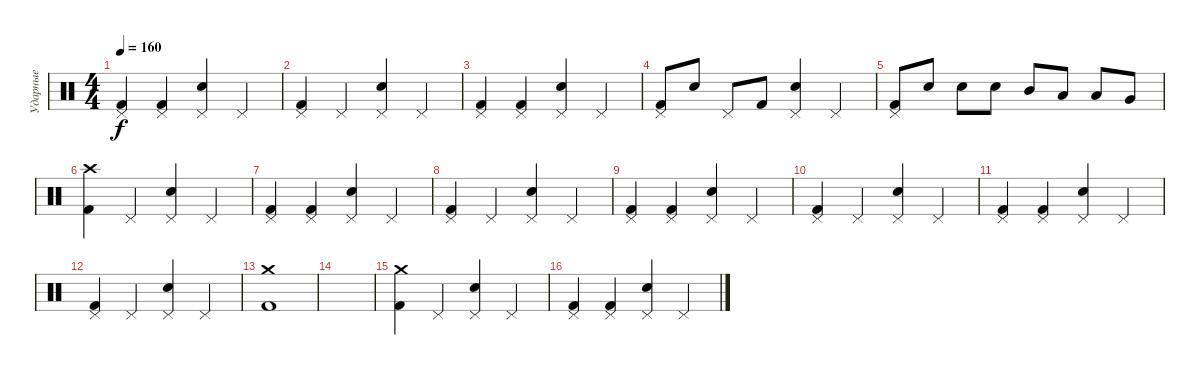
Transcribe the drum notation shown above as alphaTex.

\track ("Ударные" "Ударные") {instrument percussion}
\staff {score}
\articulation defaults
\ts (4 4)
\tempo 160
\clef neutral
\ks c
("Pedal Hi-Hat (hit)" "Kick (hit) 2").4{dy f} ("Pedal Hi-Hat (hit)" "Kick (hit) 2").4 ("Snare (hit) 2" "Pedal Hi-Hat (hit)").4 "Pedal Hi-Hat (hit)".4 |
("Pedal Hi-Hat (hit)" "Kick (hit) 2").4 "Pedal Hi-Hat (hit)".4 ("Snare (hit) 2" "Pedal Hi-Hat (hit)").4 "Pedal Hi-Hat (hit)".4 |
("Pedal Hi-Hat (hit)" "Kick (hit) 2").4 ("Pedal Hi-Hat (hit)" "Kick (hit) 2").4 ("Snare (hit) 2" "Pedal Hi-Hat (hit)").4 "Pedal Hi-Hat (hit)".4 |
("Pedal Hi-Hat (hit)" "Kick (hit) 2").8 "Snare (hit) 2".8 "Pedal Hi-Hat (hit)".8 "Kick (hit) 2".8 ("Snare (hit) 2" "Pedal Hi-Hat (hit)").4 "Pedal Hi-Hat (hit)".4 |
("Pedal Hi-Hat (hit)" "Kick (hit) 2").8 "Snare (hit) 2".8 "Snare (hit) 2".8 "Snare (hit) 2".8 "Mid Tom (hit)".8 "Low Tom (hit)".8 "Low Tom (hit)".8 "Very Low Tom (hit)".8 |
("Crash high (hit)" "Kick (hit) 2").4 "Pedal Hi-Hat (hit)".4 ("Snare (hit) 2" "Pedal Hi-Hat (hit)").4 "Pedal Hi-Hat (hit)".4 |
("Pedal Hi-Hat (hit)" "Kick (hit) 2").4 ("Pedal Hi-Hat (hit)" "Kick (hit) 2").4 ("Snare (hit) 2" "Pedal Hi-Hat (hit)").4 "Pedal Hi-Hat (hit)".4 |
("Pedal Hi-Hat (hit)" "Kick (hit) 2").4 "Pedal Hi-Hat (hit)".4 ("Snare (hit) 2" "Pedal Hi-Hat (hit)").4 "Pedal Hi-Hat (hit)".4 |
("Pedal Hi-Hat (hit)" "Kick (hit) 2").4 ("Pedal Hi-Hat (hit)" "Kick (hit) 2").4 ("Snare (hit) 2" "Pedal Hi-Hat (hit)").4 "Pedal Hi-Hat (hit)".4 |
("Pedal Hi-Hat (hit)" "Kick (hit) 2").4 "Pedal Hi-Hat (hit)".4 ("Snare (hit) 2" "Pedal Hi-Hat (hit)").4 "Pedal Hi-Hat (hit)".4 |
("Pedal Hi-Hat (hit)" "Kick (hit) 2").4 ("Pedal Hi-Hat (hit)" "Kick (hit) 2").4 ("Snare (hit) 2" "Pedal Hi-Hat (hit)").4 "Pedal Hi-Hat (hit)".4 |
("Pedal Hi-Hat (hit)" "Kick (hit) 2").4 "Pedal Hi-Hat (hit)".4 ("Snare (hit) 2" "Pedal Hi-Hat (hit)").4 "Pedal Hi-Hat (hit)".4 |
("Crash medium (hit)" "Kick (hit) 2").1 |
|
("Crash medium (hit)" "Kick (hit) 2").4 "Pedal Hi-Hat (hit)".4 ("Snare (hit) 2" "Pedal Hi-Hat (hit)").4 "Pedal Hi-Hat (hit)".4 |
("Pedal Hi-Hat (hit)" "Kick (hit) 2").4 ("Pedal Hi-Hat (hit)" "Kick (hit) 2").4 ("Snare (hit) 2" "Pedal Hi-Hat (hit)").4 "Pedal Hi-Hat (hit)".4
